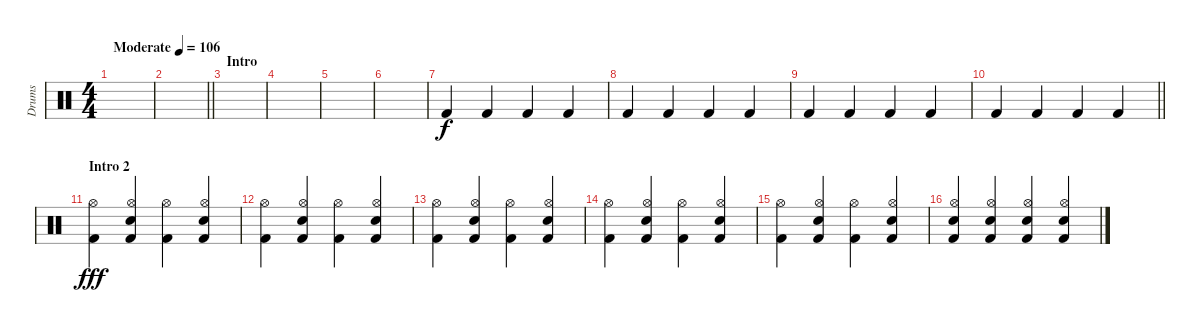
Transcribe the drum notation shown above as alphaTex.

\track ("Drums" "Drums") {instrument percussion}
\staff {score}
\articulation defaults
\ts (4 4)
\tempo (106 "Moderate")
\clef neutral
\ks c
|
\barLineRight lightlight
|
\section ("" "Intro")
|
|
|
|
"Kick (hit) 2".4 "Kick (hit) 2".4 "Kick (hit) 2".4 "Kick (hit) 2".4 |
"Kick (hit) 2".4 "Kick (hit) 2".4 "Kick (hit) 2".4 "Kick (hit) 2".4 |
"Kick (hit) 2".4 "Kick (hit) 2".4 "Kick (hit) 2".4 "Kick (hit) 2".4 |
\barLineRight lightlight "Kick (hit) 2".4 "Kick (hit) 2".4 "Kick (hit) 2".4 "Kick (hit) 2".4
|
\section ("" "Intro 2")
("Hi-Hat (open)" "Kick (hit) 2").4{dy fff} ("Hi-Hat (open)" "Snare (hit) 2" "Kick (hit) 2").4 ("Hi-Hat (open)" "Kick (hit) 2").4 ("Hi-Hat (open)" "Snare (hit) 2" "Kick (hit) 2").4 |
("Hi-Hat (open)" "Kick (hit) 2").4 ("Hi-Hat (open)" "Snare (hit) 2" "Kick (hit) 2").4 ("Hi-Hat (open)" "Kick (hit) 2").4 ("Hi-Hat (open)" "Snare (hit) 2" "Kick (hit) 2").4 |
("Hi-Hat (open)" "Kick (hit) 2").4 ("Hi-Hat (open)" "Snare (hit) 2" "Kick (hit) 2").4 ("Hi-Hat (open)" "Kick (hit) 2").4 ("Hi-Hat (open)" "Snare (hit) 2" "Kick (hit) 2").4 |
("Hi-Hat (open)" "Kick (hit) 2").4 ("Hi-Hat (open)" "Snare (hit) 2" "Kick (hit) 2").4 ("Hi-Hat (open)" "Kick (hit) 2").4 ("Hi-Hat (open)" "Snare (hit) 2" "Kick (hit) 2").4 |
("Hi-Hat (open)" "Kick (hit) 2").4 ("Hi-Hat (open)" "Snare (hit) 2" "Kick (hit) 2").4 ("Hi-Hat (open)" "Kick (hit) 2").4 ("Hi-Hat (open)" "Snare (hit) 2" "Kick (hit) 2").4 |
("Hi-Hat (open)" "Snare (hit)" "Kick (hit) 2").4 ("Hi-Hat (open)" "Snare (hit) 2" "Kick (hit) 2").4 ("Hi-Hat (open)" "Snare (hit)" "Kick (hit) 2").4 ("Hi-Hat (open)" "Snare (hit) 2" "Kick (hit) 2").4
